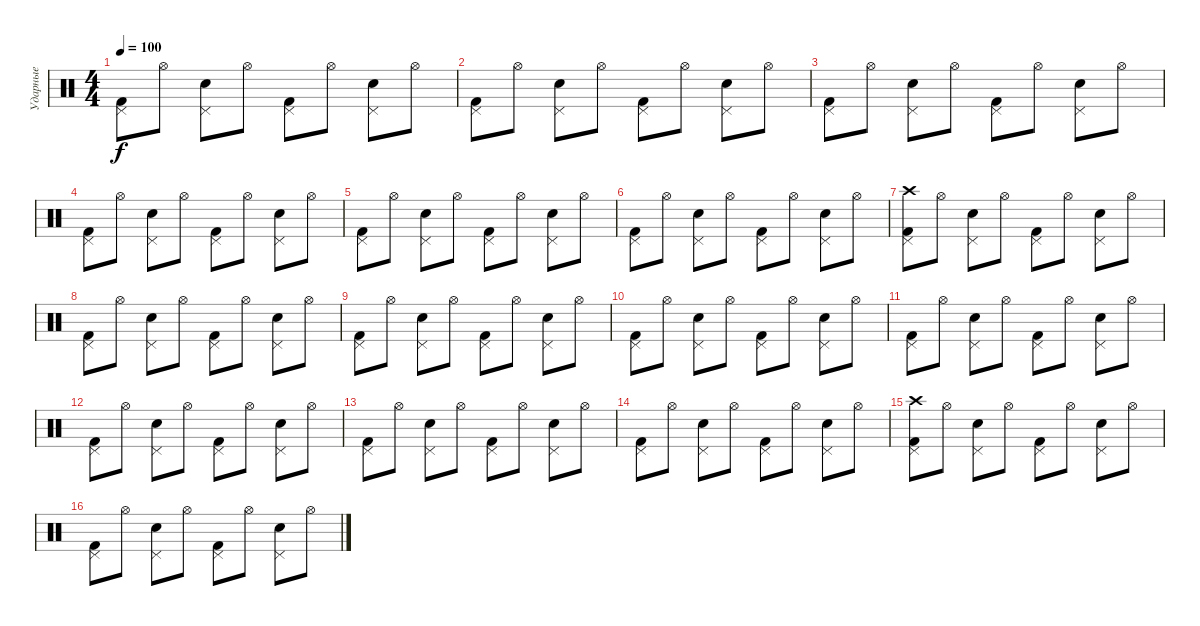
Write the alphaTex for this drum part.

\track ("Ударные" "Ударные") {instrument percussion}
\staff {score}
\articulation defaults
\ts (4 4)
\tempo 100
\clef neutral
\ks c
("Pedal Hi-Hat (hit)" "Kick (hit) 2").8{dy f} "Hi-Hat (open)".8 ("Snare (hit) 2" "Pedal Hi-Hat (hit)").8 "Hi-Hat (open)".8 ("Kick (hit) 2" "Pedal Hi-Hat (hit)").8 "Hi-Hat (open)".8 ("Snare (hit) 2" "Pedal Hi-Hat (hit)").8 "Hi-Hat (open)".8 |
("Pedal Hi-Hat (hit)" "Kick (hit) 2").8 "Hi-Hat (open)".8 ("Snare (hit) 2" "Pedal Hi-Hat (hit)").8 "Hi-Hat (open)".8 ("Kick (hit) 2" "Pedal Hi-Hat (hit)").8 "Hi-Hat (open)".8 ("Snare (hit) 2" "Pedal Hi-Hat (hit)").8 "Hi-Hat (open)".8 |
("Pedal Hi-Hat (hit)" "Kick (hit) 2").8 "Hi-Hat (open)".8 ("Snare (hit) 2" "Pedal Hi-Hat (hit)").8 "Hi-Hat (open)".8 ("Kick (hit) 2" "Pedal Hi-Hat (hit)").8 "Hi-Hat (open)".8 ("Snare (hit) 2" "Pedal Hi-Hat (hit)").8 "Hi-Hat (open)".8 |
("Pedal Hi-Hat (hit)" "Kick (hit) 2").8 "Hi-Hat (open)".8 ("Snare (hit) 2" "Pedal Hi-Hat (hit)").8 "Hi-Hat (open)".8 ("Kick (hit) 2" "Pedal Hi-Hat (hit)").8 "Hi-Hat (open)".8 ("Snare (hit) 2" "Pedal Hi-Hat (hit)").8 "Hi-Hat (open)".8 |
("Pedal Hi-Hat (hit)" "Kick (hit) 2").8 "Hi-Hat (open)".8 ("Snare (hit) 2" "Pedal Hi-Hat (hit)").8 "Hi-Hat (open)".8 ("Kick (hit) 2" "Pedal Hi-Hat (hit)").8 "Hi-Hat (open)".8 ("Snare (hit) 2" "Pedal Hi-Hat (hit)").8 "Hi-Hat (open)".8 |
("Pedal Hi-Hat (hit)" "Kick (hit) 2").8 "Hi-Hat (open)".8 ("Snare (hit) 2" "Pedal Hi-Hat (hit)").8 "Hi-Hat (open)".8 ("Kick (hit) 2" "Pedal Hi-Hat (hit)").8 "Hi-Hat (open)".8 ("Snare (hit) 2" "Pedal Hi-Hat (hit)").8 "Hi-Hat (open)".8 |
("Pedal Hi-Hat (hit)" "Crash high (hit)" "Kick (hit) 2").8 "Hi-Hat (open)".8 ("Snare (hit) 2" "Pedal Hi-Hat (hit)").8 "Hi-Hat (open)".8 ("Kick (hit) 2" "Pedal Hi-Hat (hit)").8 "Hi-Hat (open)".8 ("Snare (hit) 2" "Pedal Hi-Hat (hit)").8 "Hi-Hat (open)".8 |
("Pedal Hi-Hat (hit)" "Kick (hit) 2").8 "Hi-Hat (open)".8 ("Snare (hit) 2" "Pedal Hi-Hat (hit)").8 "Hi-Hat (open)".8 ("Kick (hit) 2" "Pedal Hi-Hat (hit)").8 "Hi-Hat (open)".8 ("Snare (hit) 2" "Pedal Hi-Hat (hit)").8 "Hi-Hat (open)".8 |
("Pedal Hi-Hat (hit)" "Kick (hit) 2").8 "Hi-Hat (open)".8 ("Snare (hit) 2" "Pedal Hi-Hat (hit)").8 "Hi-Hat (open)".8 ("Kick (hit) 2" "Pedal Hi-Hat (hit)").8 "Hi-Hat (open)".8 ("Snare (hit) 2" "Pedal Hi-Hat (hit)").8 "Hi-Hat (open)".8 |
("Pedal Hi-Hat (hit)" "Kick (hit) 2").8 "Hi-Hat (open)".8 ("Snare (hit) 2" "Pedal Hi-Hat (hit)").8 "Hi-Hat (open)".8 ("Kick (hit) 2" "Pedal Hi-Hat (hit)").8 "Hi-Hat (open)".8 ("Snare (hit) 2" "Pedal Hi-Hat (hit)").8 "Hi-Hat (open)".8 |
("Pedal Hi-Hat (hit)" "Kick (hit) 2").8 "Hi-Hat (open)".8 ("Snare (hit) 2" "Pedal Hi-Hat (hit)").8 "Hi-Hat (open)".8 ("Kick (hit) 2" "Pedal Hi-Hat (hit)").8 "Hi-Hat (open)".8 ("Snare (hit) 2" "Pedal Hi-Hat (hit)").8 "Hi-Hat (open)".8 |
("Pedal Hi-Hat (hit)" "Kick (hit) 2").8 "Hi-Hat (open)".8 ("Snare (hit) 2" "Pedal Hi-Hat (hit)").8 "Hi-Hat (open)".8 ("Kick (hit) 2" "Pedal Hi-Hat (hit)").8 "Hi-Hat (open)".8 ("Snare (hit) 2" "Pedal Hi-Hat (hit)").8 "Hi-Hat (open)".8 |
("Pedal Hi-Hat (hit)" "Kick (hit) 2").8 "Hi-Hat (open)".8 ("Snare (hit) 2" "Pedal Hi-Hat (hit)").8 "Hi-Hat (open)".8 ("Kick (hit) 2" "Pedal Hi-Hat (hit)").8 "Hi-Hat (open)".8 ("Snare (hit) 2" "Pedal Hi-Hat (hit)").8 "Hi-Hat (open)".8 |
("Pedal Hi-Hat (hit)" "Kick (hit) 2").8 "Hi-Hat (open)".8 ("Snare (hit) 2" "Pedal Hi-Hat (hit)").8 "Hi-Hat (open)".8 ("Kick (hit) 2" "Pedal Hi-Hat (hit)").8 "Hi-Hat (open)".8 ("Snare (hit) 2" "Pedal Hi-Hat (hit)").8 "Hi-Hat (open)".8 |
("Pedal Hi-Hat (hit)" "Crash high (hit)" "Kick (hit) 2").8 "Hi-Hat (open)".8 ("Snare (hit) 2" "Pedal Hi-Hat (hit)").8 "Hi-Hat (open)".8 ("Kick (hit) 2" "Pedal Hi-Hat (hit)").8 "Hi-Hat (open)".8 ("Snare (hit) 2" "Pedal Hi-Hat (hit)").8 "Hi-Hat (open)".8 |
("Pedal Hi-Hat (hit)" "Kick (hit) 2").8 "Hi-Hat (open)".8 ("Snare (hit) 2" "Pedal Hi-Hat (hit)").8 "Hi-Hat (open)".8 ("Kick (hit) 2" "Pedal Hi-Hat (hit)").8 "Hi-Hat (open)".8 ("Snare (hit) 2" "Pedal Hi-Hat (hit)").8 "Hi-Hat (open)".8
